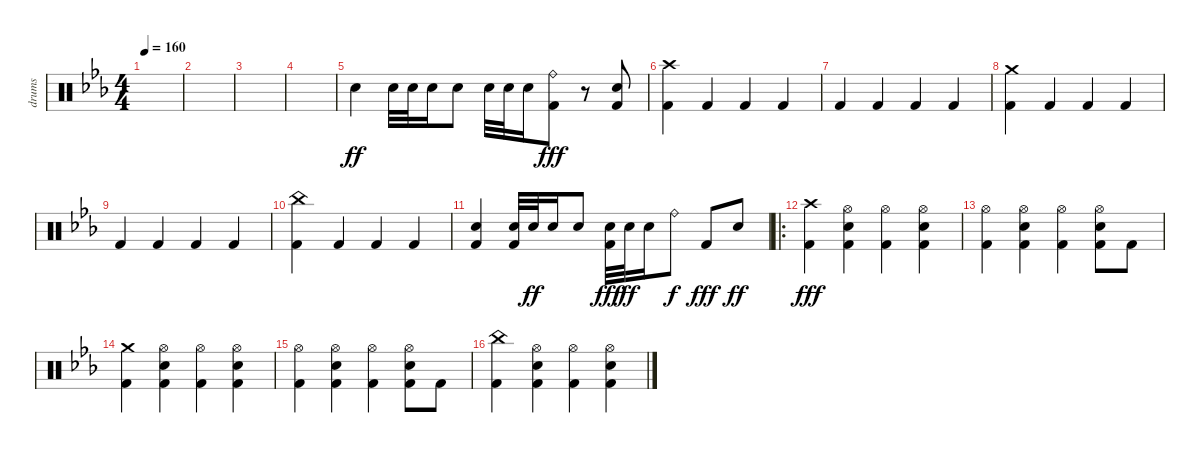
\track ("drums" "drums") {instrument percussion}
\staff {score}
\articulation defaults
\ts (4 4)
\tempo 160
\clef neutral
\ks cminor
|
|
|
|
"Electric Snare (hit)".4{dy ff} "Electric Snare (hit)".32 "Electric Snare (hit)".32 "Electric Snare (hit)".16 "Electric Snare (hit)".8 "Electric Snare (hit)".32 "Electric Snare (hit)".32 "Electric Snare (hit)".16 ("Ride (bell)" "Kick (hit) 2").8{dy fff} r.8 ("Electric Snare (hit)" "Kick (hit) 2").8{bd 240} |
("Crash high (hit)" "Kick (hit) 2").4 "Kick (hit) 2".4 "Kick (hit) 2".4 "Kick (hit) 2".4 |
"Kick (hit) 2".4 "Kick (hit) 2".4 "Kick (hit) 2".4 "Kick (hit) 2".4 |
("Crash medium (hit)" "Kick (hit) 2").4 "Kick (hit) 2".4 "Kick (hit) 2".4 "Kick (hit) 2".4 |
"Kick (hit) 2".4 "Kick (hit) 2".4 "Kick (hit) 2".4 "Kick (hit) 2".4 |
("China (hit)" "Kick (hit) 2").4 "Kick (hit) 2".4 "Kick (hit) 2".4 "Kick (hit) 2".4 |
("Electric Snare (hit)" "Kick (hit) 2").4 ("Electric Snare (hit)" "Kick (hit) 2").32 "Electric Snare (hit)".32{dy ff} "Electric Snare (hit)".16 "Electric Snare (hit)".8 ("Electric Snare (hit)" "Kick (hit) 2").32{dy fff} "Electric Snare (hit)".32{dy ff} "Electric Snare (hit)".16 "Ride (bell)".8{dy f} "Kick (hit) 2".8{dy fff} "Electric Snare (hit)".8{dy ff} |
\ro
("Crash high (hit)" "Kick (hit) 2").4{dy fff} ("Hi-Hat (open)" "Electric Snare (hit)" "Kick (hit) 2").4 ("Hi-Hat (open)" "Kick (hit) 2").4 ("Hi-Hat (open)" "Electric Snare (hit)" "Kick (hit) 2").4 |
("Hi-Hat (open)" "Kick (hit) 2").4 ("Hi-Hat (open)" "Electric Snare (hit)" "Kick (hit) 2").4 ("Hi-Hat (open)" "Kick (hit) 2").4 ("Hi-Hat (open)" "Electric Snare (hit)" "Kick (hit) 2").8 "Kick (hit) 2".8 |
("Crash medium (hit)" "Kick (hit) 2").4 ("Hi-Hat (open)" "Electric Snare (hit)" "Kick (hit) 2").4 ("Hi-Hat (open)" "Kick (hit) 2").4 ("Hi-Hat (open)" "Electric Snare (hit)" "Kick (hit) 2").4 |
("Hi-Hat (open)" "Kick (hit) 2").4 ("Hi-Hat (open)" "Electric Snare (hit)" "Kick (hit) 2").4 ("Hi-Hat (open)" "Kick (hit) 2").4 ("Hi-Hat (open)" "Electric Snare (hit)" "Kick (hit) 2").8 "Kick (hit) 2".8 |
("China (hit)" "Kick (hit) 2").4 ("Hi-Hat (open)" "Electric Snare (hit)" "Kick (hit) 2").4 ("Hi-Hat (open)" "Kick (hit) 2").4 ("Hi-Hat (open)" "Electric Snare (hit)" "Kick (hit) 2").4
